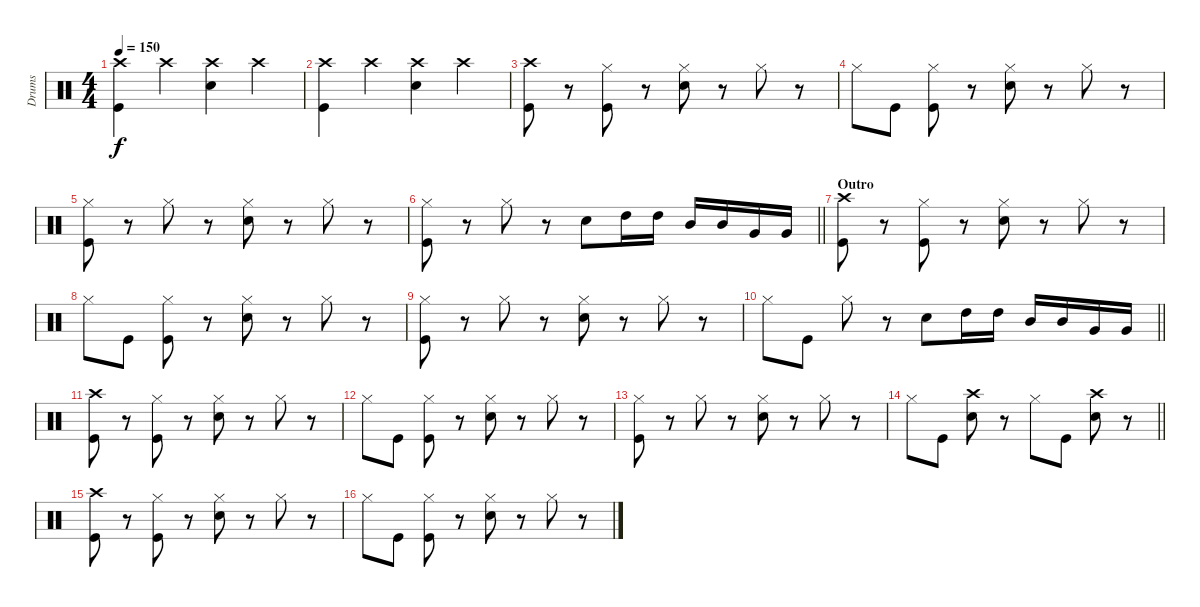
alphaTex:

\track ("Drums" "Drums") {instrument percussion}
\staff {score}
\articulation defaults
\ts (4 4)
\tempo 150
\clef neutral
\ks c
("Crash high (hit)" "Kick (hit)").4{dy f} "Crash high (hit)".4 ("Crash high (hit)" "Electric Snare (hit)").4 "Crash high (hit)".4 |
("Crash high (hit)" "Kick (hit)").4 "Crash high (hit)".4 ("Crash high (hit)" "Electric Snare (hit)").4 "Crash high (hit)".4 |
("Crash high (hit)" "Kick (hit)").8 r.8 ("Hi-Hat (closed)" "Kick (hit)").8 r.8 ("Hi-Hat (closed)" "Electric Snare (hit)").8 r.8 "Hi-Hat (closed)".8 r.8 |
"Hi-Hat (closed)".8 "Kick (hit)".8 ("Hi-Hat (closed)" "Kick (hit)").8 r.8 ("Hi-Hat (closed)" "Electric Snare (hit)").8 r.8 "Hi-Hat (closed)".8 r.8 |
("Hi-Hat (closed)" "Kick (hit)").8 r.8 "Hi-Hat (closed)".8 r.8 ("Hi-Hat (closed)" "Electric Snare (hit)").8 r.8 "Hi-Hat (closed)".8 r.8 |
\barLineRight lightlight
("Hi-Hat (closed)" "Kick (hit)").8 r.8 "Hi-Hat (closed)".8 r.8 "Electric Snare (hit)".8 "High Tom (hit)".16 "High Tom (hit)".16 "Mid Tom (hit)".16 "Mid Tom (hit)".16 "Very Low Tom (hit)".16 "Very Low Tom (hit)".16 |
\section ("" "Outro")
("Crash high (hit)" "Kick (hit)").8 r.8 ("Hi-Hat (closed)" "Kick (hit)").8 r.8 ("Hi-Hat (closed)" "Electric Snare (hit)").8 r.8 "Hi-Hat (closed)".8 r.8 |
"Hi-Hat (closed)".8 "Kick (hit)".8 ("Hi-Hat (closed)" "Kick (hit)").8 r.8 ("Hi-Hat (closed)" "Electric Snare (hit)").8 r.8 "Hi-Hat (closed)".8 r.8 |
("Hi-Hat (closed)" "Kick (hit)").8 r.8 "Hi-Hat (closed)".8 r.8 ("Hi-Hat (closed)" "Electric Snare (hit)").8 r.8 "Hi-Hat (closed)".8 r.8 |
\barLineRight lightlight "Hi-Hat (closed)".8 "Kick (hit)".8 "Hi-Hat (closed)".8
r.8 "Electric Snare (hit)".8 "High Tom (hit)".16 "High Tom (hit)".16 "Mid Tom (hit)".16 "Mid Tom (hit)".16 "Very Low Tom (hit)".16 "Very Low Tom (hit)".16 |
("Crash high (hit)" "Kick (hit)").8 r.8 ("Hi-Hat (closed)" "Kick (hit)").8 r.8 ("Hi-Hat (closed)" "Electric Snare (hit)").8 r.8 "Hi-Hat (closed)".8 r.8 |
"Hi-Hat (closed)".8 "Kick (hit)".8 ("Hi-Hat (closed)" "Kick (hit)").8 r.8 ("Hi-Hat (closed)" "Electric Snare (hit)").8 r.8 "Hi-Hat (closed)".8 r.8 |
("Hi-Hat (closed)" "Kick (hit)").8 r.8 "Hi-Hat (closed)".8 r.8 ("Hi-Hat (closed)" "Electric Snare (hit)").8 r.8 "Hi-Hat (closed)".8 r.8 |
\barLineRight lightlight "Hi-Hat (closed)".8 "Kick (hit)".8
("Crash high (hit)" "Electric Snare (hit)").8 r.8 "Hi-Hat (closed)".8 "Kick (hit)".8 ("Crash high (hit)" "Electric Snare (hit)").8 r.8 |
("Crash high (hit)" "Kick (hit)").8 r.8 ("Hi-Hat (closed)" "Kick (hit)").8 r.8 ("Hi-Hat (closed)" "Electric Snare (hit)").8 r.8 "Hi-Hat (closed)".8 r.8 |
"Hi-Hat (closed)".8 "Kick (hit)".8 ("Hi-Hat (closed)" "Kick (hit)").8 r.8 ("Hi-Hat (closed)" "Electric Snare (hit)").8 r.8 "Hi-Hat (closed)".8 r.8
